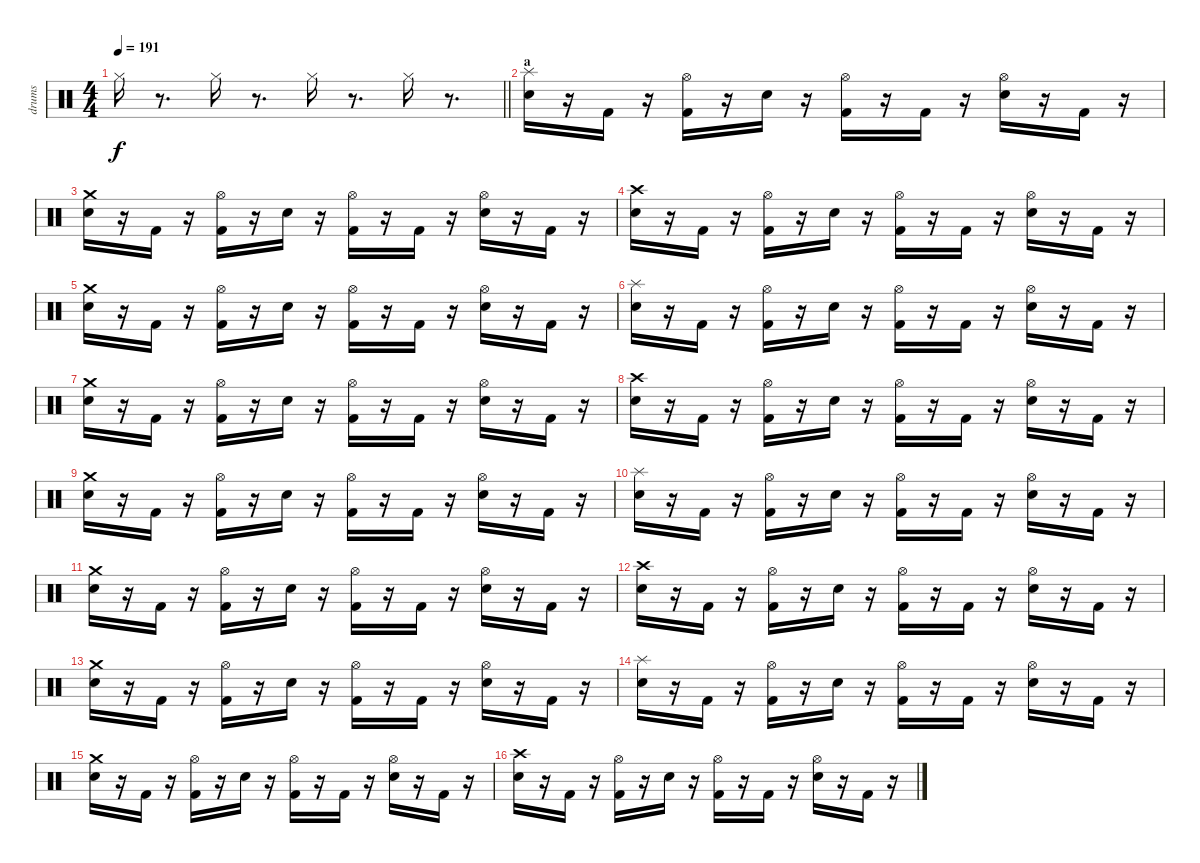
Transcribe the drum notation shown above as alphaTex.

\track ("drums" "drums") {instrument percussion}
\staff {score}
\articulation defaults
\ts (4 4)
\tempo 191
\clef neutral
\barLineRight lightlight
\ks c "Hi-Hat (closed)".16{dy f}
r.8{d} "Hi-Hat (closed)".16 r.8{d} "Hi-Hat (closed)".16 r.8{d} "Hi-Hat (closed)".16 r.8{d} |
\section ("" "a")
("Snare (hit) 2" "Splash (hit)").16 r.16 "Kick (hit) 2".16 r.16 ("Kick (hit) 2" "Hi-Hat (open)").16 r.16 "Snare (hit) 2".16 r.16 ("Kick (hit) 2" "Hi-Hat (open)").16 r.16 "Kick (hit) 2".16 r.16 ("Snare (hit) 2" "Hi-Hat (open)").16 r.16 "Kick (hit) 2".16 r.16 |
("Snare (hit) 2" "Crash medium (hit)").16 r.16 "Kick (hit) 2".16 r.16 ("Kick (hit) 2" "Hi-Hat (open)").16 r.16 "Snare (hit) 2".16 r.16 ("Kick (hit) 2" "Hi-Hat (open)").16 r.16 "Kick (hit) 2".16 r.16 ("Snare (hit) 2" "Hi-Hat (open)").16 r.16 "Kick (hit) 2".16 r.16 |
("Snare (hit) 2" "Crash high (hit)").16 r.16 "Kick (hit) 2".16 r.16 ("Kick (hit) 2" "Hi-Hat (open)").16 r.16 "Snare (hit) 2".16 r.16 ("Kick (hit) 2" "Hi-Hat (open)").16 r.16 "Kick (hit) 2".16 r.16 ("Snare (hit) 2" "Hi-Hat (open)").16 r.16 "Kick (hit) 2".16 r.16 |
("Snare (hit) 2" "Crash medium (hit)").16 r.16 "Kick (hit) 2".16 r.16 ("Kick (hit) 2" "Hi-Hat (open)").16 r.16 "Snare (hit) 2".16 r.16 ("Kick (hit) 2" "Hi-Hat (open)").16 r.16 "Kick (hit) 2".16 r.16 ("Snare (hit) 2" "Hi-Hat (open)").16 r.16 "Kick (hit) 2".16 r.16 |
("Snare (hit) 2" "Splash (hit)").16 r.16 "Kick (hit) 2".16 r.16 ("Kick (hit) 2" "Hi-Hat (open)").16 r.16 "Snare (hit) 2".16 r.16 ("Kick (hit) 2" "Hi-Hat (open)").16 r.16 "Kick (hit) 2".16 r.16 ("Snare (hit) 2" "Hi-Hat (open)").16 r.16 "Kick (hit) 2".16 r.16 |
("Snare (hit) 2" "Crash medium (hit)").16 r.16 "Kick (hit) 2".16 r.16 ("Kick (hit) 2" "Hi-Hat (open)").16 r.16 "Snare (hit) 2".16 r.16 ("Kick (hit) 2" "Hi-Hat (open)").16 r.16 "Kick (hit) 2".16 r.16 ("Snare (hit) 2" "Hi-Hat (open)").16 r.16 "Kick (hit) 2".16 r.16 |
("Snare (hit) 2" "Crash high (hit)").16 r.16 "Kick (hit) 2".16 r.16 ("Kick (hit) 2" "Hi-Hat (open)").16 r.16 "Snare (hit) 2".16 r.16 ("Kick (hit) 2" "Hi-Hat (open)").16 r.16 "Kick (hit) 2".16 r.16 ("Snare (hit) 2" "Hi-Hat (open)").16 r.16 "Kick (hit) 2".16 r.16 |
("Snare (hit) 2" "Crash medium (hit)").16 r.16 "Kick (hit) 2".16 r.16 ("Kick (hit) 2" "Hi-Hat (open)").16 r.16 "Snare (hit) 2".16 r.16 ("Kick (hit) 2" "Hi-Hat (open)").16 r.16 "Kick (hit) 2".16 r.16 ("Snare (hit) 2" "Hi-Hat (open)").16 r.16 "Kick (hit) 2".16 r.16 |
("Snare (hit) 2" "Splash (hit)").16 r.16 "Kick (hit) 2".16 r.16 ("Kick (hit) 2" "Hi-Hat (open)").16 r.16 "Snare (hit) 2".16 r.16 ("Kick (hit) 2" "Hi-Hat (open)").16 r.16 "Kick (hit) 2".16 r.16 ("Snare (hit) 2" "Hi-Hat (open)").16 r.16 "Kick (hit) 2".16 r.16 |
("Snare (hit) 2" "Crash medium (hit)").16 r.16 "Kick (hit) 2".16 r.16 ("Kick (hit) 2" "Hi-Hat (open)").16 r.16 "Snare (hit) 2".16 r.16 ("Kick (hit) 2" "Hi-Hat (open)").16 r.16 "Kick (hit) 2".16 r.16 ("Snare (hit) 2" "Hi-Hat (open)").16 r.16 "Kick (hit) 2".16 r.16 |
("Snare (hit) 2" "Crash high (hit)").16 r.16 "Kick (hit) 2".16 r.16 ("Kick (hit) 2" "Hi-Hat (open)").16 r.16 "Snare (hit) 2".16 r.16 ("Kick (hit) 2" "Hi-Hat (open)").16 r.16 "Kick (hit) 2".16 r.16 ("Snare (hit) 2" "Hi-Hat (open)").16 r.16 "Kick (hit) 2".16 r.16 |
("Snare (hit) 2" "Crash medium (hit)").16 r.16 "Kick (hit) 2".16 r.16 ("Kick (hit) 2" "Hi-Hat (open)").16 r.16 "Snare (hit) 2".16 r.16 ("Kick (hit) 2" "Hi-Hat (open)").16 r.16 "Kick (hit) 2".16 r.16 ("Snare (hit) 2" "Hi-Hat (open)").16 r.16 "Kick (hit) 2".16 r.16 |
("Snare (hit) 2" "Splash (hit)").16 r.16 "Kick (hit) 2".16 r.16 ("Kick (hit) 2" "Hi-Hat (open)").16 r.16 "Snare (hit) 2".16 r.16 ("Kick (hit) 2" "Hi-Hat (open)").16 r.16 "Kick (hit) 2".16 r.16 ("Snare (hit) 2" "Hi-Hat (open)").16 r.16 "Kick (hit) 2".16 r.16 |
("Snare (hit) 2" "Crash medium (hit)").16 r.16 "Kick (hit) 2".16 r.16 ("Kick (hit) 2" "Hi-Hat (open)").16 r.16 "Snare (hit) 2".16 r.16 ("Kick (hit) 2" "Hi-Hat (open)").16 r.16 "Kick (hit) 2".16 r.16 ("Snare (hit) 2" "Hi-Hat (open)").16 r.16 "Kick (hit) 2".16 r.16 |
("Snare (hit) 2" "Crash high (hit)").16 r.16 "Kick (hit) 2".16 r.16 ("Kick (hit) 2" "Hi-Hat (open)").16 r.16 "Snare (hit) 2".16 r.16 ("Kick (hit) 2" "Hi-Hat (open)").16 r.16 "Kick (hit) 2".16 r.16 ("Snare (hit) 2" "Hi-Hat (open)").16 r.16 "Kick (hit) 2".16 r.16
